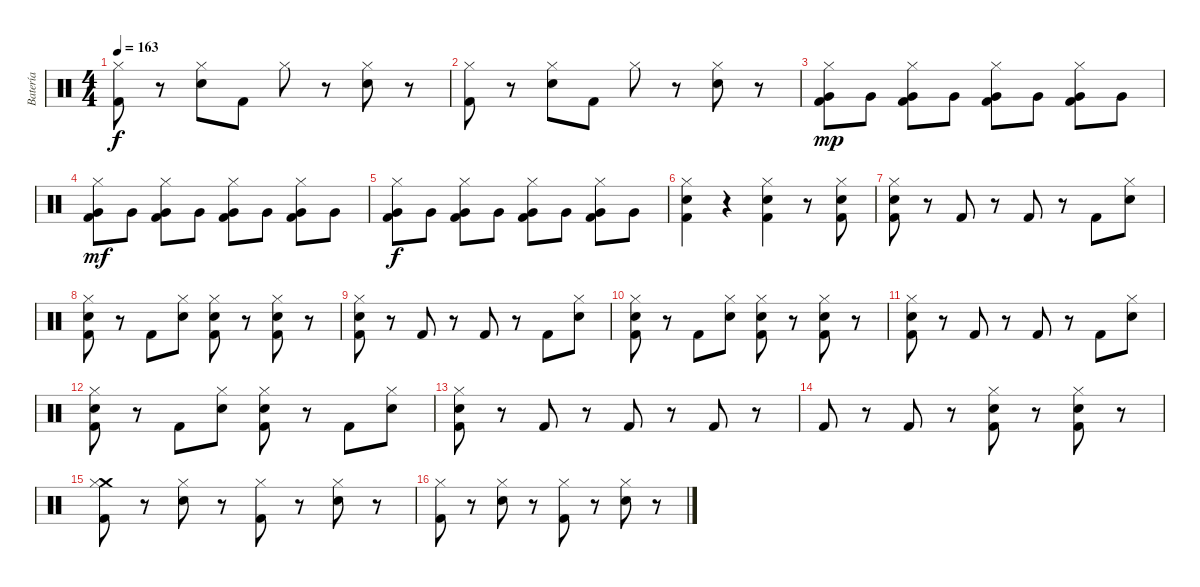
\track ("Batería" "Batería") {instrument percussion}
\staff {score}
\articulation defaults
\ts (4 4)
\tempo 163
\clef neutral
\ks c
("Hi-Hat (closed)" "Kick (hit) 2").8{dy f} r.8 ("Hi-Hat (closed)" "Snare (hit) 2").8 "Kick (hit) 2".8 "Hi-Hat (closed)".8 r.8 ("Hi-Hat (closed)" "Snare (hit) 2").8 r.8 |
("Hi-Hat (closed)" "Kick (hit) 2").8 r.8 ("Hi-Hat (closed)" "Snare (hit) 2").8 "Kick (hit) 2".8 "Hi-Hat (closed)".8 r.8 ("Hi-Hat (closed)" "Snare (hit) 2").8 r.8 |
("Hi-Hat (closed)" "Very Low Tom (hit)" "Kick (hit) 2").8{dy mp} "Very Low Tom (hit)".8 ("Hi-Hat (closed)" "Very Low Tom (hit)" "Kick (hit) 2").8 "Very Low Tom (hit)".8 ("Hi-Hat (closed)" "Very Low Tom (hit)" "Kick (hit) 2").8 "Very Low Tom (hit)".8 ("Hi-Hat (closed)" "Very Low Tom (hit)" "Kick (hit) 2").8 "Very Low Tom (hit)".8 |
("Hi-Hat (closed)" "Very Low Tom (hit)" "Kick (hit) 2").8{dy mf} "Very Low Tom (hit)".8 ("Hi-Hat (closed)" "Very Low Tom (hit)" "Kick (hit) 2").8 "Very Low Tom (hit)".8 ("Hi-Hat (closed)" "Very Low Tom (hit)" "Kick (hit) 2").8 "Very Low Tom (hit)".8 ("Hi-Hat (closed)" "Very Low Tom (hit)" "Kick (hit) 2").8 "Very Low Tom (hit)".8 |
("Hi-Hat (closed)" "Very Low Tom (hit)" "Kick (hit) 2").8{dy f} "Very Low Tom (hit)".8 ("Hi-Hat (closed)" "Very Low Tom (hit)" "Kick (hit) 2").8 "Very Low Tom (hit)".8 ("Hi-Hat (closed)" "Very Low Tom (hit)" "Kick (hit) 2").8 "Very Low Tom (hit)".8 ("Hi-Hat (closed)" "Very Low Tom (hit)" "Kick (hit) 2").8 "Very Low Tom (hit)".8 |
("Hi-Hat (closed)" "Snare (hit) 2" "Kick (hit) 2").4 r.4 ("Hi-Hat (closed)" "Snare (hit) 2" "Kick (hit) 2").4 r.8 ("Hi-Hat (closed)" "Snare (hit) 2" "Kick (hit) 2").8 |
("Hi-Hat (closed)" "Snare (hit) 2" "Kick (hit) 2").8 r.8 "Kick (hit) 2".8 r.8 "Kick (hit) 2".8 r.8 "Kick (hit) 2".8 ("Hi-Hat (closed)" "Snare (hit) 2").8 |
("Hi-Hat (closed)" "Snare (hit) 2" "Kick (hit) 2").8 r.8 "Kick (hit) 2".8 ("Hi-Hat (closed)" "Snare (hit) 2").8 ("Hi-Hat (closed)" "Snare (hit) 2" "Kick (hit) 2").8 r.8 ("Hi-Hat (closed)" "Snare (hit) 2" "Kick (hit) 2").8 r.8 |
("Hi-Hat (closed)" "Snare (hit) 2" "Kick (hit) 2").8 r.8 "Kick (hit) 2".8 r.8 "Kick (hit) 2".8 r.8 "Kick (hit) 2".8 ("Hi-Hat (closed)" "Snare (hit) 2").8 |
("Hi-Hat (closed)" "Snare (hit) 2" "Kick (hit) 2").8 r.8 "Kick (hit) 2".8 ("Hi-Hat (closed)" "Snare (hit) 2").8 ("Hi-Hat (closed)" "Snare (hit) 2" "Kick (hit) 2").8 r.8 ("Hi-Hat (closed)" "Snare (hit) 2" "Kick (hit) 2").8 r.8 |
("Hi-Hat (closed)" "Snare (hit) 2" "Kick (hit) 2").8 r.8 "Kick (hit) 2".8 r.8 "Kick (hit) 2".8 r.8 "Kick (hit) 2".8 ("Hi-Hat (closed)" "Snare (hit) 2").8 |
("Hi-Hat (closed)" "Snare (hit) 2" "Kick (hit) 2").8 r.8 "Kick (hit) 2".8 ("Hi-Hat (closed)" "Snare (hit) 2").8 ("Hi-Hat (closed)" "Snare (hit) 2" "Kick (hit) 2").8 r.8 "Kick (hit) 2".8 ("Hi-Hat (closed)" "Snare (hit) 2").8 |
("Hi-Hat (closed)" "Snare (hit) 2" "Kick (hit) 2").8 r.8 "Kick (hit) 2".8 r.8 "Kick (hit) 2".8 r.8 "Kick (hit) 2".8 r.8 |
"Kick (hit) 2".8 r.8 "Kick (hit) 2".8 r.8 ("Hi-Hat (closed)" "Snare (hit) 2" "Kick (hit) 2").8 r.8 ("Hi-Hat (closed)" "Snare (hit) 2" "Kick (hit) 2").8 r.8 |
("Crash medium (hit)" "Hi-Hat (closed)" "Kick (hit) 2").8 r.8 ("Hi-Hat (closed)" "Snare (hit) 2").8 r.8 ("Hi-Hat (closed)" "Kick (hit) 2").8 r.8 ("Hi-Hat (closed)" "Snare (hit) 2").8 r.8 |
("Hi-Hat (closed)" "Kick (hit) 2").8 r.8 ("Hi-Hat (closed)" "Snare (hit) 2").8 r.8 ("Hi-Hat (closed)" "Kick (hit) 2").8 r.8 ("Hi-Hat (closed)" "Snare (hit) 2").8 r.8
